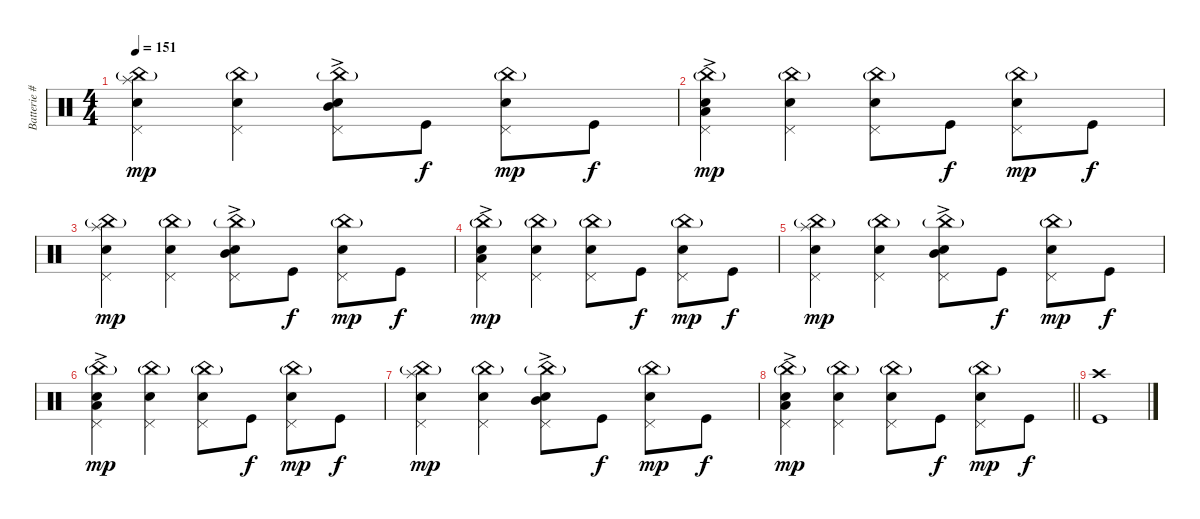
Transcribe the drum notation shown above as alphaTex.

\track ("Batterie # S.Hewitt" "Batterie #") {instrument percussion}
\staff {score}
\articulation defaults
\ts (4 4)
\tempo 151
\clef neutral
\ks c
("Splash (hit)" "China (hit)"{g} "Electric Snare (hit)" "Pedal Hi-Hat (hit)").4{dy mp} ("China (hit)"{g} "Electric Snare (hit)" "Pedal Hi-Hat (hit)").4 ("Mid Tom (hit)"{ac} "China (hit)"{g} "Electric Snare (hit)" "Pedal Hi-Hat (hit)").8 "Kick (hit)".8{dy f} ("China (hit)"{g} "Electric Snare (hit)" "Pedal Hi-Hat (hit)").8{dy mp} "Kick (hit)".8{dy f} |
("Low Tom (hit)"{ac} "China (hit)"{g} "Electric Snare (hit)" "Pedal Hi-Hat (hit)").4{dy mp} ("China (hit)"{g} "Electric Snare (hit)" "Pedal Hi-Hat (hit)").4 ("China (hit)"{g} "Electric Snare (hit)" "Pedal Hi-Hat (hit)").8 "Kick (hit)".8{dy f} ("China (hit)"{g} "Electric Snare (hit)" "Pedal Hi-Hat (hit)").8{dy mp} "Kick (hit)".8{dy f} |
("Splash (hit)" "China (hit)"{g} "Electric Snare (hit)" "Pedal Hi-Hat (hit)").4{dy mp} ("China (hit)"{g} "Electric Snare (hit)" "Pedal Hi-Hat (hit)").4 ("Mid Tom (hit)"{ac} "China (hit)"{g} "Electric Snare (hit)" "Pedal Hi-Hat (hit)").8 "Kick (hit)".8{dy f} ("China (hit)"{g} "Electric Snare (hit)" "Pedal Hi-Hat (hit)").8{dy mp} "Kick (hit)".8{dy f} |
("Low Tom (hit)"{ac} "China (hit)"{g} "Electric Snare (hit)" "Pedal Hi-Hat (hit)").4{dy mp} ("China (hit)"{g} "Electric Snare (hit)" "Pedal Hi-Hat (hit)").4 ("China (hit)"{g} "Electric Snare (hit)" "Pedal Hi-Hat (hit)").8 "Kick (hit)".8{dy f} ("China (hit)"{g} "Electric Snare (hit)" "Pedal Hi-Hat (hit)").8{dy mp} "Kick (hit)".8{dy f} |
("Splash (hit)" "China (hit)"{g} "Electric Snare (hit)" "Pedal Hi-Hat (hit)").4{dy mp} ("China (hit)"{g} "Electric Snare (hit)" "Pedal Hi-Hat (hit)").4 ("Mid Tom (hit)"{ac} "China (hit)"{g} "Electric Snare (hit)" "Pedal Hi-Hat (hit)").8 "Kick (hit)".8{dy f} ("China (hit)"{g} "Electric Snare (hit)" "Pedal Hi-Hat (hit)").8{dy mp} "Kick (hit)".8{dy f} |
("Low Tom (hit)"{ac} "China (hit)"{g} "Electric Snare (hit)" "Pedal Hi-Hat (hit)").4{dy mp} ("China (hit)"{g} "Electric Snare (hit)" "Pedal Hi-Hat (hit)").4 ("China (hit)"{g} "Electric Snare (hit)" "Pedal Hi-Hat (hit)").8 "Kick (hit)".8{dy f} ("China (hit)"{g} "Electric Snare (hit)" "Pedal Hi-Hat (hit)").8{dy mp} "Kick (hit)".8{dy f} |
("Splash (hit)" "China (hit)"{g} "Electric Snare (hit)" "Pedal Hi-Hat (hit)").4{dy mp} ("China (hit)"{g} "Electric Snare (hit)" "Pedal Hi-Hat (hit)").4 ("Mid Tom (hit)"{ac} "China (hit)"{g} "Electric Snare (hit)" "Pedal Hi-Hat (hit)").8 "Kick (hit)".8{dy f} ("China (hit)"{g} "Electric Snare (hit)" "Pedal Hi-Hat (hit)").8{dy mp} "Kick (hit)".8{dy f} |
\barLineRight lightlight
("Low Tom (hit)"{ac} "China (hit)"{g} "Electric Snare (hit)" "Pedal Hi-Hat (hit)").4{dy mp} ("China (hit)"{g} "Electric Snare (hit)" "Pedal Hi-Hat (hit)").4 ("China (hit)"{g} "Electric Snare (hit)" "Pedal Hi-Hat (hit)").8 "Kick (hit)".8{dy f} ("China (hit)"{g} "Electric Snare (hit)" "Pedal Hi-Hat (hit)").8{dy mp} "Kick (hit)".8{dy f} |
("Crash high (hit)" "Kick (hit)").1
